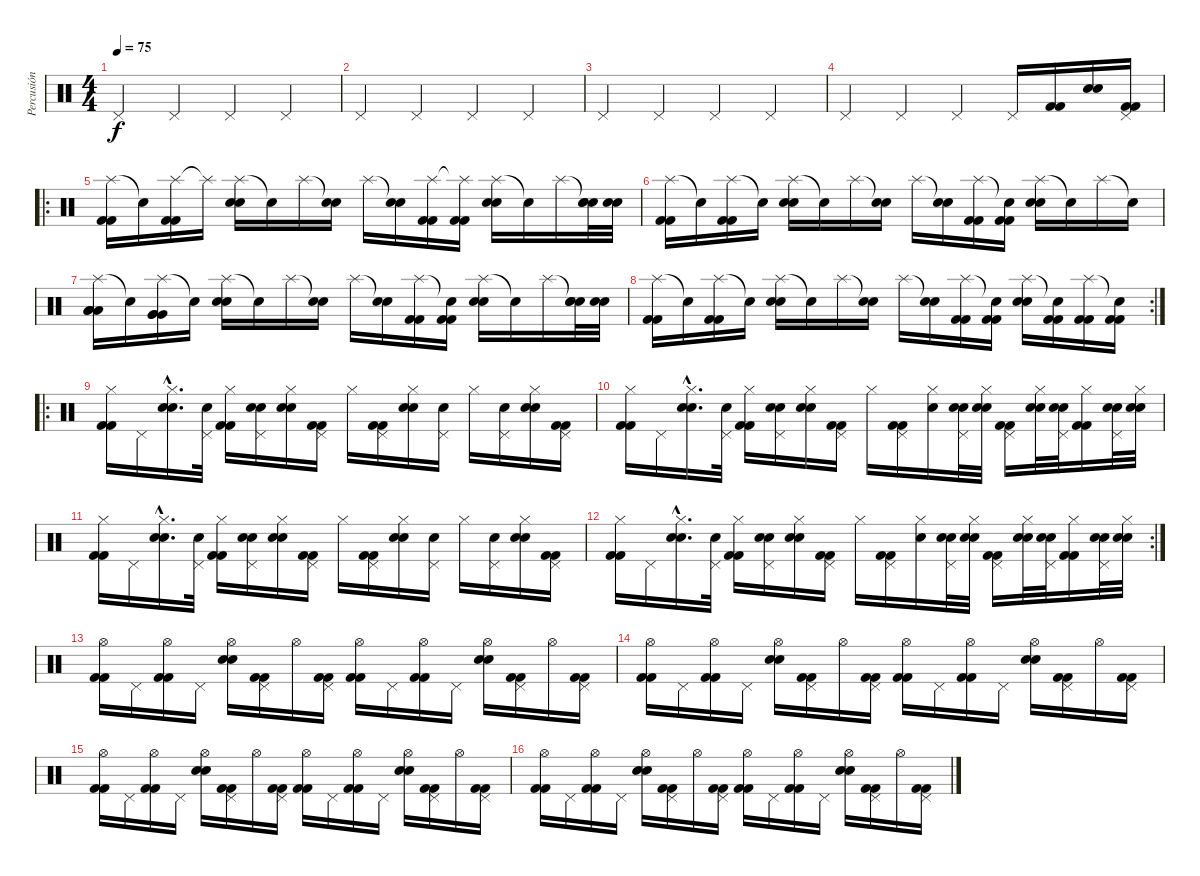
\track ("Percusión" "Percusión") {instrument percussion}
\staff {score}
\articulation defaults
\ts (4 4)
\tempo 75
\clef neutral
\ks c "Pedal Hi-Hat (hit)".4{dy f} "Pedal Hi-Hat (hit)".4 "Pedal Hi-Hat (hit)".4 "Pedal Hi-Hat (hit)".4
|
"Pedal Hi-Hat (hit)".4 "Pedal Hi-Hat (hit)".4 "Pedal Hi-Hat (hit)".4 "Pedal Hi-Hat (hit)".4 |
"Pedal Hi-Hat (hit)".4 "Pedal Hi-Hat (hit)".4 "Pedal Hi-Hat (hit)".4 "Pedal Hi-Hat (hit)".4 |
"Pedal Hi-Hat (hit)".4 "Pedal Hi-Hat (hit)".4 "Pedal Hi-Hat (hit)".4 "Pedal Hi-Hat (hit)".16 ("Kick (hit) 2" "Kick (hit) 2").16 ("Electric Snare (hit)" "Electric Snare (hit)").16 ("Pedal Hi-Hat (hit)" "Kick (hit) 2" "Kick (hit) 2").16 |
\ro
("Splash (hit)" "Kick (hit) 2" "Kick (hit) 2").16 "Snare (hit)"{t}.16 ("Splash (hit)" "Kick (hit) 2" "Kick (hit) 2").16 "Splash (hit)"{t}.16 ("Splash (hit)" "Electric Snare (hit)" "Electric Snare (hit)").16 "Snare (hit)"{t}.16 "Splash (hit)".16 ("Snare (hit)"{t} "Electric Snare (hit)").16 "Splash (hit)".16 ("Snare (hit)"{t} "Electric Snare (hit)").16 ("Splash (hit)" "Kick (hit) 2" "Kick (hit) 2").16 ("Splash (hit)"{t} "Kick (hit) 2" "Kick (hit) 2").16 ("Splash (hit)" "Electric Snare (hit)" "Electric Snare (hit)").16 "Snare (hit)"{t}.16 "Splash (hit)".16 ("Snare (hit)"{t} "Electric Snare (hit)" "Electric Snare (hit)").32 ("Electric Snare (hit)" "Electric Snare (hit)").32 |
("Splash (hit)" "Kick (hit) 2" "Kick (hit) 2").16 "Snare (hit)"{t}.16 ("Splash (hit)" "Kick (hit) 2" "Kick (hit) 2").16 "Snare (hit)"{t}.16 ("Splash (hit)" "Electric Snare (hit)" "Electric Snare (hit)").16 "Snare (hit)"{t}.16 "Splash (hit)".16 ("Snare (hit)"{t} "Electric Snare (hit)").16 "Splash (hit)".16 ("Snare (hit)"{t} "Electric Snare (hit)").16 ("Splash (hit)" "Kick (hit) 2" "Kick (hit) 2").16 ("Snare (hit)"{t} "Kick (hit) 2" "Kick (hit) 2").16 ("Splash (hit)" "Electric Snare (hit)" "Electric Snare (hit)").16 "Snare (hit)"{t}.16 "Splash (hit)".16 "Snare (hit)"{t}.16 |
("Splash (hit)" "Low Tom (hit)" "Low Tom (hit)" "Low Tom (hit)").16 "Snare (hit)"{t}.16 ("Splash (hit)" "Very Low Tom (hit)" "Very Low Tom (hit)" "Very Low Tom (hit)").16 "Snare (hit)"{t}.16 ("Splash (hit)" "Electric Snare (hit)" "Electric Snare (hit)").16 "Snare (hit)"{t}.16 "Splash (hit)".16 ("Snare (hit)"{t} "Electric Snare (hit)").16 "Splash (hit)".16 ("Snare (hit)"{t} "Electric Snare (hit)").16 ("Splash (hit)" "Kick (hit) 2" "Kick (hit) 2").16 ("Snare (hit)"{t} "Kick (hit) 2" "Kick (hit) 2").16 ("Splash (hit)" "Electric Snare (hit)" "Electric Snare (hit)").16 "Snare (hit)"{t}.16 "Splash (hit)".16 ("Snare (hit)"{t} "Electric Snare (hit)" "Electric Snare (hit)").32 ("Electric Snare (hit)" "Electric Snare (hit)").32 |
\rc 2
("Splash (hit)" "Kick (hit) 2" "Kick (hit) 2").16 "Snare (hit)"{t}.16 ("Splash (hit)" "Kick (hit) 2" "Kick (hit) 2").16 "Snare (hit)"{t}.16 ("Splash (hit)" "Electric Snare (hit)" "Electric Snare (hit)").16 "Snare (hit)"{t}.16 "Splash (hit)".16 ("Snare (hit)"{t} "Electric Snare (hit)").16 "Splash (hit)".16 ("Snare (hit)"{t} "Electric Snare (hit)").16 ("Splash (hit)" "Kick (hit) 2" "Kick (hit) 2").16 ("Snare (hit)"{t} "Kick (hit) 2" "Kick (hit) 2").16 ("Splash (hit)" "Electric Snare (hit)" "Electric Snare (hit)").16 ("Snare (hit)"{t} "Kick (hit) 2" "Kick (hit) 2").16 ("Splash (hit)" "Kick (hit) 2" "Kick (hit) 2").16 ("Snare (hit)"{t} "Kick (hit) 2" "Kick (hit) 2").16 |
\ro
("Hi-Hat (closed)" "Kick (hit) 2" "Kick (hit) 2").16 "Pedal Hi-Hat (hit)".16 ("Hi-Hat (closed)"{hac} "Electric Snare (hit)"{hac} "Electric Snare (hit)"{hac}).16{d} ("Pedal Hi-Hat (hit)" "Electric Snare (hit)").32 ("Hi-Hat (closed)" "Kick (hit) 2" "Kick (hit) 2").16 ("Pedal Hi-Hat (hit)" "Electric Snare (hit)" "Electric Snare (hit)").16 ("Hi-Hat (closed)" "Electric Snare (hit)" "Electric Snare (hit)").16 ("Pedal Hi-Hat (hit)" "Kick (hit) 2" "Kick (hit) 2").16 "Hi-Hat (closed)".16 ("Pedal Hi-Hat (hit)" "Kick (hit) 2" "Kick (hit) 2").16 ("Hi-Hat (closed)" "Electric Snare (hit)" "Electric Snare (hit)").16 ("Pedal Hi-Hat (hit)" "Electric Snare (hit)").16 "Hi-Hat (closed)".16 ("Pedal Hi-Hat (hit)" "Electric Snare (hit)").16 ("Hi-Hat (closed)" "Electric Snare (hit)" "Electric Snare (hit)").16 ("Pedal Hi-Hat (hit)" "Kick (hit) 2" "Kick (hit) 2").16 |
("Hi-Hat (closed)" "Kick (hit) 2" "Kick (hit) 2").16 "Pedal Hi-Hat (hit)".16 ("Hi-Hat (closed)"{hac} "Electric Snare (hit)"{hac} "Electric Snare (hit)"{hac}).16{d} ("Pedal Hi-Hat (hit)" "Electric Snare (hit)").32 ("Hi-Hat (closed)" "Kick (hit) 2" "Kick (hit) 2").16 ("Pedal Hi-Hat (hit)" "Electric Snare (hit)" "Electric Snare (hit)").16 ("Hi-Hat (closed)" "Electric Snare (hit)" "Electric Snare (hit)").16 ("Pedal Hi-Hat (hit)" "Kick (hit) 2" "Kick (hit) 2").16 "Hi-Hat (closed)".16 ("Pedal Hi-Hat (hit)" "Kick (hit) 2" "Kick (hit) 2").16 ("Hi-Hat (closed)" "Electric Snare (hit)").16 ("Pedal Hi-Hat (hit)" "Electric Snare (hit)" "Electric Snare (hit)").32 ("Hi-Hat (closed)" "Electric Snare (hit)" "Electric Snare (hit)").32 ("Pedal Hi-Hat (hit)" "Kick (hit) 2" "Kick (hit) 2").16 ("Hi-Hat (closed)" "Electric Snare (hit)" "Electric Snare (hit)").32 ("Pedal Hi-Hat (hit)" "Electric Snare (hit)" "Electric Snare (hit)").32 ("Hi-Hat (closed)" "Kick (hit) 2" "Kick (hit) 2").16 ("Pedal Hi-Hat (hit)" "Electric Snare (hit)" "Electric Snare (hit)").32 ("Hi-Hat (closed)" "Electric Snare (hit)" "Electric Snare (hit)").32 |
("Hi-Hat (closed)" "Kick (hit) 2" "Kick (hit) 2").16 "Pedal Hi-Hat (hit)".16 ("Hi-Hat (closed)"{hac} "Electric Snare (hit)"{hac} "Electric Snare (hit)"{hac}).16{d} ("Pedal Hi-Hat (hit)" "Electric Snare (hit)").32 ("Hi-Hat (closed)" "Kick (hit) 2" "Kick (hit) 2").16 ("Pedal Hi-Hat (hit)" "Electric Snare (hit)" "Electric Snare (hit)").16 ("Hi-Hat (closed)" "Electric Snare (hit)" "Electric Snare (hit)").16 ("Pedal Hi-Hat (hit)" "Kick (hit) 2" "Kick (hit) 2").16 "Hi-Hat (closed)".16 ("Pedal Hi-Hat (hit)" "Kick (hit) 2" "Kick (hit) 2").16 ("Hi-Hat (closed)" "Electric Snare (hit)" "Electric Snare (hit)").16 ("Pedal Hi-Hat (hit)" "Electric Snare (hit)").16 "Hi-Hat (closed)".16 ("Pedal Hi-Hat (hit)" "Electric Snare (hit)").16 ("Hi-Hat (closed)" "Electric Snare (hit)" "Electric Snare (hit)").16 ("Pedal Hi-Hat (hit)" "Kick (hit) 2" "Kick (hit) 2").16 |
\rc 2
("Hi-Hat (closed)" "Kick (hit) 2" "Kick (hit) 2").16 "Pedal Hi-Hat (hit)".16 ("Hi-Hat (closed)"{hac} "Electric Snare (hit)"{hac} "Electric Snare (hit)"{hac}).16{d} ("Pedal Hi-Hat (hit)" "Electric Snare (hit)").32 ("Hi-Hat (closed)" "Kick (hit) 2" "Kick (hit) 2").16 ("Pedal Hi-Hat (hit)" "Electric Snare (hit)" "Electric Snare (hit)").16 ("Hi-Hat (closed)" "Electric Snare (hit)" "Electric Snare (hit)").16 ("Pedal Hi-Hat (hit)" "Kick (hit) 2" "Kick (hit) 2").16 "Hi-Hat (closed)".16 ("Pedal Hi-Hat (hit)" "Kick (hit) 2" "Kick (hit) 2").16 ("Hi-Hat (closed)" "Electric Snare (hit)").16 ("Pedal Hi-Hat (hit)" "Electric Snare (hit)" "Electric Snare (hit)").32 ("Hi-Hat (closed)" "Electric Snare (hit)" "Electric Snare (hit)").32 ("Pedal Hi-Hat (hit)" "Kick (hit) 2" "Kick (hit) 2").16 ("Hi-Hat (closed)" "Electric Snare (hit)" "Electric Snare (hit)").32 ("Pedal Hi-Hat (hit)" "Electric Snare (hit)" "Electric Snare (hit)").32 ("Hi-Hat (closed)" "Kick (hit) 2" "Kick (hit) 2").16 ("Pedal Hi-Hat (hit)" "Electric Snare (hit)" "Electric Snare (hit)").32 ("Hi-Hat (closed)" "Electric Snare (hit)" "Electric Snare (hit)").32 |
("Hi-Hat (open)" "Kick (hit) 2" "Kick (hit) 2").16 "Pedal Hi-Hat (hit)".16 ("Hi-Hat (open)" "Kick (hit) 2" "Kick (hit) 2").16 "Pedal Hi-Hat (hit)".16 ("Hi-Hat (open)" "Electric Snare (hit)" "Electric Snare (hit)").16 ("Pedal Hi-Hat (hit)" "Kick (hit) 2" "Kick (hit) 2").16 "Hi-Hat (open)".16 ("Pedal Hi-Hat (hit)" "Kick (hit) 2" "Kick (hit) 2").16 ("Hi-Hat (open)" "Kick (hit) 2" "Kick (hit) 2").16 "Pedal Hi-Hat (hit)".16 ("Hi-Hat (open)" "Kick (hit) 2" "Kick (hit) 2").16 "Pedal Hi-Hat (hit)".16 ("Hi-Hat (open)" "Electric Snare (hit)" "Electric Snare (hit)").16 ("Pedal Hi-Hat (hit)" "Kick (hit) 2" "Kick (hit) 2").16 "Hi-Hat (open)".16 ("Pedal Hi-Hat (hit)" "Kick (hit) 2" "Kick (hit) 2").16 |
("Hi-Hat (open)" "Kick (hit) 2" "Kick (hit) 2").16 "Pedal Hi-Hat (hit)".16 ("Hi-Hat (open)" "Kick (hit) 2" "Kick (hit) 2").16 "Pedal Hi-Hat (hit)".16 ("Hi-Hat (open)" "Electric Snare (hit)" "Electric Snare (hit)").16 ("Pedal Hi-Hat (hit)" "Kick (hit) 2" "Kick (hit) 2").16 "Hi-Hat (open)".16 ("Pedal Hi-Hat (hit)" "Kick (hit) 2" "Kick (hit) 2").16 ("Hi-Hat (open)" "Kick (hit) 2" "Kick (hit) 2").16 "Pedal Hi-Hat (hit)".16 ("Hi-Hat (open)" "Kick (hit) 2" "Kick (hit) 2").16 "Pedal Hi-Hat (hit)".16 ("Hi-Hat (open)" "Electric Snare (hit)" "Electric Snare (hit)").16 ("Pedal Hi-Hat (hit)" "Kick (hit) 2" "Kick (hit) 2").16 "Hi-Hat (open)".16 ("Pedal Hi-Hat (hit)" "Kick (hit) 2" "Kick (hit) 2").16 |
("Hi-Hat (open)" "Kick (hit) 2" "Kick (hit) 2").16 "Pedal Hi-Hat (hit)".16 ("Hi-Hat (open)" "Kick (hit) 2" "Kick (hit) 2").16 "Pedal Hi-Hat (hit)".16 ("Hi-Hat (open)" "Electric Snare (hit)" "Electric Snare (hit)").16 ("Pedal Hi-Hat (hit)" "Kick (hit) 2" "Kick (hit) 2").16 "Hi-Hat (open)".16 ("Pedal Hi-Hat (hit)" "Kick (hit) 2" "Kick (hit) 2").16 ("Hi-Hat (open)" "Kick (hit) 2" "Kick (hit) 2").16 "Pedal Hi-Hat (hit)".16 ("Hi-Hat (open)" "Kick (hit) 2" "Kick (hit) 2").16 "Pedal Hi-Hat (hit)".16 ("Hi-Hat (open)" "Electric Snare (hit)" "Electric Snare (hit)").16 ("Pedal Hi-Hat (hit)" "Kick (hit) 2" "Kick (hit) 2").16 "Hi-Hat (open)".16 ("Pedal Hi-Hat (hit)" "Kick (hit) 2" "Kick (hit) 2").16 |
("Hi-Hat (open)" "Kick (hit) 2" "Kick (hit) 2").16 "Pedal Hi-Hat (hit)".16 ("Hi-Hat (open)" "Kick (hit) 2" "Kick (hit) 2").16 "Pedal Hi-Hat (hit)".16 ("Hi-Hat (open)" "Electric Snare (hit)" "Electric Snare (hit)").16 ("Pedal Hi-Hat (hit)" "Kick (hit) 2" "Kick (hit) 2").16 "Hi-Hat (open)".16 ("Pedal Hi-Hat (hit)" "Kick (hit) 2" "Kick (hit) 2").16 ("Hi-Hat (open)" "Kick (hit) 2" "Kick (hit) 2").16 "Pedal Hi-Hat (hit)".16 ("Hi-Hat (open)" "Kick (hit) 2" "Kick (hit) 2").16 "Pedal Hi-Hat (hit)".16 ("Hi-Hat (open)" "Electric Snare (hit)" "Electric Snare (hit)").16 ("Pedal Hi-Hat (hit)" "Kick (hit) 2" "Kick (hit) 2").16 "Hi-Hat (open)".16 ("Pedal Hi-Hat (hit)" "Kick (hit) 2" "Kick (hit) 2").16
